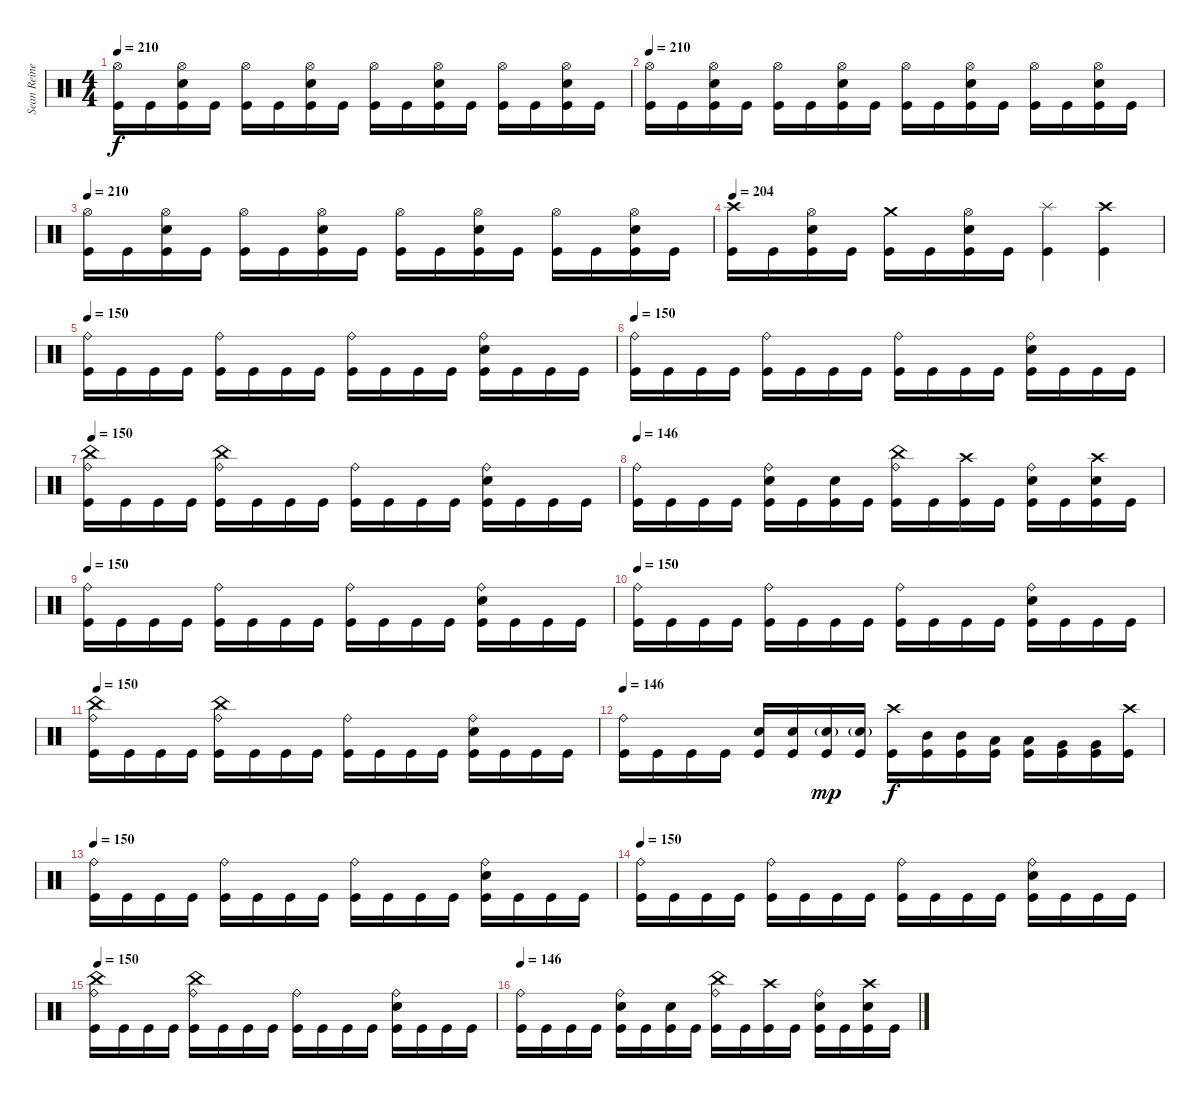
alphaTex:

\track ("Sean Reinert" "Sean Reine") {instrument percussion}
\staff {score}
\articulation defaults
\ts (4 4)
\tempo 210
\clef neutral
\ks c
("Hi-Hat (open)" "Kick (hit)").16{dy f} "Kick (hit)".16 ("Hi-Hat (open)" "Snare (hit) 2" "Kick (hit)").16 "Kick (hit)".16 ("Hi-Hat (open)" "Kick (hit)").16 "Kick (hit)".16 ("Hi-Hat (open)" "Snare (hit) 2" "Kick (hit)").16 "Kick (hit)".16 ("Hi-Hat (open)" "Kick (hit)").16 "Kick (hit)".16 ("Hi-Hat (open)" "Snare (hit) 2" "Kick (hit)").16 "Kick (hit)".16 ("Hi-Hat (open)" "Kick (hit)").16 "Kick (hit)".16 ("Hi-Hat (open)" "Snare (hit) 2" "Kick (hit)").16 "Kick (hit)".16 |
\tempo 210
("Hi-Hat (open)" "Kick (hit)").16 "Kick (hit)".16 ("Hi-Hat (open)" "Snare (hit) 2" "Kick (hit)").16 "Kick (hit)".16 ("Hi-Hat (open)" "Kick (hit)").16 "Kick (hit)".16 ("Hi-Hat (open)" "Snare (hit) 2" "Kick (hit)").16 "Kick (hit)".16 ("Hi-Hat (open)" "Kick (hit)").16 "Kick (hit)".16 ("Hi-Hat (open)" "Snare (hit) 2" "Kick (hit)").16 "Kick (hit)".16 ("Hi-Hat (open)" "Kick (hit)").16 "Kick (hit)".16 ("Hi-Hat (open)" "Snare (hit) 2" "Kick (hit)").16 "Kick (hit)".16 |
\tempo 210
("Hi-Hat (open)" "Kick (hit)").16 "Kick (hit)".16 ("Hi-Hat (open)" "Snare (hit) 2" "Kick (hit)").16 "Kick (hit)".16 ("Hi-Hat (open)" "Kick (hit)").16 "Kick (hit)".16 ("Hi-Hat (open)" "Snare (hit) 2" "Kick (hit)").16 "Kick (hit)".16 ("Hi-Hat (open)" "Kick (hit)").16 "Kick (hit)".16 ("Hi-Hat (open)" "Snare (hit) 2" "Kick (hit)").16 "Kick (hit)".16 ("Hi-Hat (open)" "Kick (hit)").16 "Kick (hit)".16 ("Hi-Hat (open)" "Snare (hit) 2" "Kick (hit)").16 "Kick (hit)".16 |
\tempo 204
("Crash high (hit)" "Kick (hit)").16 "Kick (hit)".16 ("Hi-Hat (open)" "Snare (hit) 2" "Kick (hit)").16 "Kick (hit)".16 ("Crash medium (hit)" "Kick (hit)").16 "Kick (hit)".16 ("Hi-Hat (open)" "Snare (hit) 2" "Kick (hit)").16 "Kick (hit)".16 ("Splash (hit)" "Kick (hit)").4 ("Crash high (hit)" "Kick (hit)").4 |
\tempo 150
("Ride (bell)" "Kick (hit)").16 "Kick (hit)".16 "Kick (hit)".16 "Kick (hit)".16 ("Ride (bell)" "Kick (hit)").16 "Kick (hit)".16 "Kick (hit)".16 "Kick (hit)".16 ("Ride (bell)" "Kick (hit)").16 "Kick (hit)".16 "Kick (hit)".16 "Kick (hit)".16 ("Ride (bell)" "Snare (hit) 2" "Kick (hit)").16 "Kick (hit)".16 "Kick (hit)".16 "Kick (hit)".16 |
\tempo 150
("Ride (bell)" "Kick (hit)").16 "Kick (hit)".16 "Kick (hit)".16 "Kick (hit)".16 ("Ride (bell)" "Kick (hit)").16 "Kick (hit)".16 "Kick (hit)".16 "Kick (hit)".16 ("Ride (bell)" "Kick (hit)").16 "Kick (hit)".16 "Kick (hit)".16 "Kick (hit)".16 ("Ride (bell)" "Snare (hit) 2" "Kick (hit)").16 "Kick (hit)".16 "Kick (hit)".16 "Kick (hit)".16 |
\tempo 150
("China (hit)" "Ride (bell)" "Kick (hit)").16 "Kick (hit)".16 "Kick (hit)".16 "Kick (hit)".16 ("China (hit)" "Ride (bell)" "Kick (hit)").16 "Kick (hit)".16 "Kick (hit)".16 "Kick (hit)".16 ("Ride (bell)" "Kick (hit)").16 "Kick (hit)".16 "Kick (hit)".16 "Kick (hit)".16 ("Ride (bell)" "Snare (hit) 2" "Kick (hit)").16 "Kick (hit)".16 "Kick (hit)".16 "Kick (hit)".16 |
\tempo 146
("Ride (bell)" "Kick (hit)").16 "Kick (hit)".16 "Kick (hit)".16 "Kick (hit)".16 ("Ride (bell)" "Snare (hit) 2" "Kick (hit)").16 "Kick (hit)".16 ("Snare (hit) 2" "Kick (hit)").16 "Kick (hit)".16 ("China (hit)" "Ride (bell)" "Kick (hit)").16 "Kick (hit)".16 ("Crash high (hit)" "Kick (hit)").16 "Kick (hit)".16 ("Ride (bell)" "Snare (hit) 2" "Kick (hit)").16 "Kick (hit)".16 ("Crash high (hit)" "Snare (hit) 2" "Kick (hit)").16 "Kick (hit)".16 |
\tempo 150
("Ride (bell)" "Kick (hit)").16 "Kick (hit)".16 "Kick (hit)".16 "Kick (hit)".16 ("Ride (bell)" "Kick (hit)").16 "Kick (hit)".16 "Kick (hit)".16 "Kick (hit)".16 ("Ride (bell)" "Kick (hit)").16 "Kick (hit)".16 "Kick (hit)".16 "Kick (hit)".16 ("Ride (bell)" "Snare (hit) 2" "Kick (hit)").16 "Kick (hit)".16 "Kick (hit)".16 "Kick (hit)".16 |
\tempo 150
("Ride (bell)" "Kick (hit)").16 "Kick (hit)".16 "Kick (hit)".16 "Kick (hit)".16 ("Ride (bell)" "Kick (hit)").16 "Kick (hit)".16 "Kick (hit)".16 "Kick (hit)".16 ("Ride (bell)" "Kick (hit)").16 "Kick (hit)".16 "Kick (hit)".16 "Kick (hit)".16 ("Ride (bell)" "Snare (hit) 2" "Kick (hit)").16 "Kick (hit)".16 "Kick (hit)".16 "Kick (hit)".16 |
\tempo 150
("China (hit)" "Ride (bell)" "Kick (hit)").16 "Kick (hit)".16 "Kick (hit)".16 "Kick (hit)".16 ("China (hit)" "Ride (bell)" "Kick (hit)").16 "Kick (hit)".16 "Kick (hit)".16 "Kick (hit)".16 ("Ride (bell)" "Kick (hit)").16 "Kick (hit)".16 "Kick (hit)".16 "Kick (hit)".16 ("Ride (bell)" "Snare (hit) 2" "Kick (hit)").16 "Kick (hit)".16 "Kick (hit)".16 "Kick (hit)".16 |
\tempo 146
("Ride (bell)" "Kick (hit)").16 "Kick (hit)".16 "Kick (hit)".16 "Kick (hit)".16 ("Snare (hit) 2" "Kick (hit)").16 ("Snare (hit) 2" "Kick (hit)").16 ("Snare (hit) 2"{g} "Kick (hit)").16{dy mp} ("Snare (hit) 2"{g} "Kick (hit)").16 ("Crash high (hit)" "Kick (hit)").16{dy f} ("Mid Tom (hit)" "Kick (hit)").16 ("Mid Tom (hit)" "Kick (hit)").16 ("Low Tom (hit)" "Kick (hit)").16 ("Low Tom (hit)" "Kick (hit)").16 ("Very Low Tom (hit)" "Kick (hit)").16 ("Very Low Tom (hit)" "Kick (hit)").16 ("Crash high (hit)" "Kick (hit)").16 |
\tempo 150
("Ride (bell)" "Kick (hit)").16 "Kick (hit)".16 "Kick (hit)".16 "Kick (hit)".16 ("Ride (bell)" "Kick (hit)").16 "Kick (hit)".16 "Kick (hit)".16 "Kick (hit)".16 ("Ride (bell)" "Kick (hit)").16 "Kick (hit)".16 "Kick (hit)".16 "Kick (hit)".16 ("Ride (bell)" "Snare (hit) 2" "Kick (hit)").16 "Kick (hit)".16 "Kick (hit)".16 "Kick (hit)".16 |
\tempo 150
("Ride (bell)" "Kick (hit)").16 "Kick (hit)".16 "Kick (hit)".16 "Kick (hit)".16 ("Ride (bell)" "Kick (hit)").16 "Kick (hit)".16 "Kick (hit)".16 "Kick (hit)".16 ("Ride (bell)" "Kick (hit)").16 "Kick (hit)".16 "Kick (hit)".16 "Kick (hit)".16 ("Ride (bell)" "Snare (hit) 2" "Kick (hit)").16 "Kick (hit)".16 "Kick (hit)".16 "Kick (hit)".16 |
\tempo 150
("China (hit)" "Ride (bell)" "Kick (hit)").16 "Kick (hit)".16 "Kick (hit)".16 "Kick (hit)".16 ("China (hit)" "Ride (bell)" "Kick (hit)").16 "Kick (hit)".16 "Kick (hit)".16 "Kick (hit)".16 ("Ride (bell)" "Kick (hit)").16 "Kick (hit)".16 "Kick (hit)".16 "Kick (hit)".16 ("Ride (bell)" "Snare (hit) 2" "Kick (hit)").16 "Kick (hit)".16 "Kick (hit)".16 "Kick (hit)".16 |
\tempo 146
("Ride (bell)" "Kick (hit)").16 "Kick (hit)".16 "Kick (hit)".16 "Kick (hit)".16 ("Ride (bell)" "Snare (hit) 2" "Kick (hit)").16 "Kick (hit)".16 ("Snare (hit) 2" "Kick (hit)").16 "Kick (hit)".16 ("China (hit)" "Ride (bell)" "Kick (hit)").16 "Kick (hit)".16 ("Crash high (hit)" "Kick (hit)").16 "Kick (hit)".16 ("Ride (bell)" "Snare (hit) 2" "Kick (hit)").16 "Kick (hit)".16 ("Crash high (hit)" "Snare (hit) 2" "Kick (hit)").16 "Kick (hit)".16
